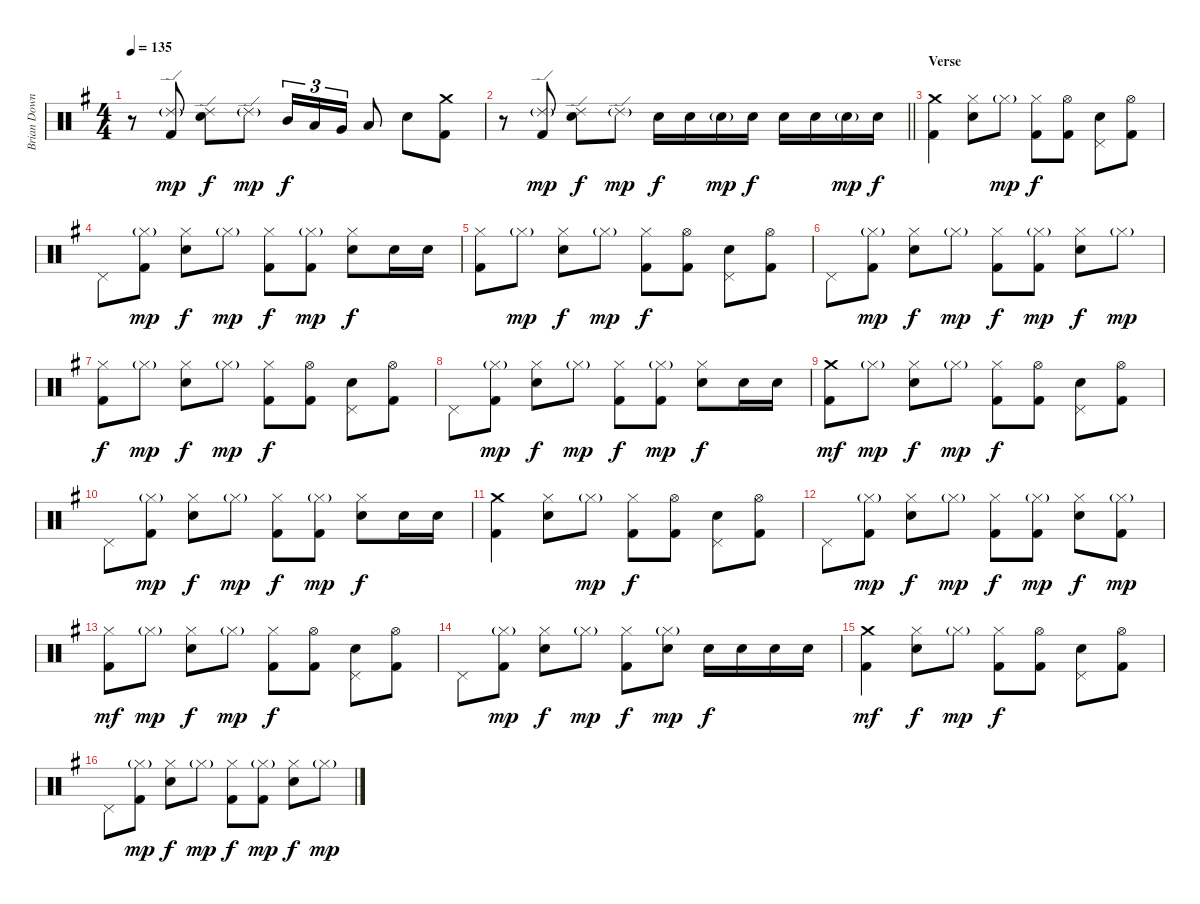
\track ("Brian Downey" "Brian Down") {instrument percussion}
\staff {score}
\articulation defaults
\ts (4 4)
\tempo 135
\clef neutral
\ks eminor
r.8{dy f} ("Ride (edge) 2"{g} "Kick (hit) 2").8{dy mp} ("Ride (edge) 2" "Electric Snare (hit)").8{dy f} "Ride (edge) 2"{g}.8{dy mp} "Mid Tom (hit)".16{tu (3 2) dy f} "Low Tom (hit)".16{tu (3 2)} "Very Low Tom (hit)".16{tu (3 2)} "Low Floor Tom (hit)".8 "Electric Snare (hit)".8 ("Crash medium (hit)" "Kick (hit) 2").8 |
\barLineRight lightlight
r.8 ("Ride (edge) 2"{g} "Kick (hit) 2").8{dy mp} ("Ride (edge) 2" "Electric Snare (hit)").8{dy f} "Ride (edge) 2"{g}.8{dy mp} "Electric Snare (hit)".16{dy f} "Electric Snare (hit)".16 "Electric Snare (hit)"{g}.16{dy mp} "Electric Snare (hit)".16{dy f} "Electric Snare (hit)".16 "Electric Snare (hit)".16 "Electric Snare (hit)"{g}.16{dy mp} "Electric Snare (hit)".16{dy f} |
\section ("" "Verse")
("Crash medium (hit)" "Kick (hit) 2").4 ("Hi-Hat (closed)" "Electric Snare (hit)").8 "Hi-Hat (closed)"{g}.8{dy mp} ("Hi-Hat (closed)" "Kick (hit) 2").8{dy f} ("Hi-Hat (open)" "Kick (hit) 2").8 ("Pedal Hi-Hat (hit)" "Electric Snare (hit)").8 ("Hi-Hat (open)" "Kick (hit) 2").8 |
"Pedal Hi-Hat (hit)".8 ("Hi-Hat (closed)"{g} "Kick (hit) 2").8{dy mp} ("Hi-Hat (closed)" "Electric Snare (hit)").8{dy f} "Hi-Hat (closed)"{g}.8{dy mp} ("Hi-Hat (closed)" "Kick (hit) 2").8{dy f} ("Hi-Hat (closed)"{g} "Kick (hit) 2").8{dy mp} ("Hi-Hat (closed)" "Electric Snare (hit)").8{dy f} "Electric Snare (hit)".16 "Electric Snare (hit)".16 |
("Hi-Hat (closed)" "Kick (hit) 2").8 "Hi-Hat (closed)"{g}.8{dy mp} ("Hi-Hat (closed)" "Electric Snare (hit)").8{dy f} "Hi-Hat (closed)"{g}.8{dy mp} ("Hi-Hat (closed)" "Kick (hit) 2").8{dy f} ("Hi-Hat (open)" "Kick (hit) 2").8 ("Pedal Hi-Hat (hit)" "Electric Snare (hit)").8 ("Hi-Hat (open)" "Kick (hit) 2").8 |
"Pedal Hi-Hat (hit)".8 ("Hi-Hat (closed)"{g} "Kick (hit) 2").8{dy mp} ("Hi-Hat (closed)" "Electric Snare (hit)").8{dy f} "Hi-Hat (closed)"{g}.8{dy mp} ("Hi-Hat (closed)" "Kick (hit) 2").8{dy f} ("Hi-Hat (closed)"{g} "Kick (hit) 2").8{dy mp} ("Hi-Hat (closed)" "Electric Snare (hit)").8{dy f} "Hi-Hat (closed)"{g}.8{dy mp} |
("Hi-Hat (closed)" "Kick (hit) 2").8{dy f} "Hi-Hat (closed)"{g}.8{dy mp} ("Hi-Hat (closed)" "Electric Snare (hit)").8{dy f} "Hi-Hat (closed)"{g}.8{dy mp} ("Hi-Hat (closed)" "Kick (hit) 2").8{dy f} ("Hi-Hat (open)" "Kick (hit) 2").8 ("Pedal Hi-Hat (hit)" "Electric Snare (hit)").8 ("Hi-Hat (open)" "Kick (hit) 2").8 |
"Pedal Hi-Hat (hit)".8 ("Hi-Hat (closed)"{g} "Kick (hit) 2").8{dy mp} ("Hi-Hat (closed)" "Electric Snare (hit)").8{dy f} "Hi-Hat (closed)"{g}.8{dy mp} ("Hi-Hat (closed)" "Kick (hit) 2").8{dy f} ("Hi-Hat (closed)"{g} "Kick (hit) 2").8{dy mp} ("Hi-Hat (closed)" "Electric Snare (hit)").8{dy f} "Electric Snare (hit)".16 "Electric Snare (hit)".16 |
("Crash medium (hit)" "Kick (hit) 2").8{dy mf} "Hi-Hat (closed)"{g}.8{dy mp} ("Hi-Hat (closed)" "Electric Snare (hit)").8{dy f} "Hi-Hat (closed)"{g}.8{dy mp} ("Hi-Hat (closed)" "Kick (hit) 2").8{dy f} ("Hi-Hat (open)" "Kick (hit) 2").8 ("Pedal Hi-Hat (hit)" "Electric Snare (hit)").8 ("Hi-Hat (open)" "Kick (hit) 2").8 |
"Pedal Hi-Hat (hit)".8 ("Hi-Hat (closed)"{g} "Kick (hit) 2").8{dy mp} ("Hi-Hat (closed)" "Electric Snare (hit)").8{dy f} "Hi-Hat (closed)"{g}.8{dy mp} ("Hi-Hat (closed)" "Kick (hit) 2").8{dy f} ("Hi-Hat (closed)"{g} "Kick (hit) 2").8{dy mp} ("Hi-Hat (closed)" "Electric Snare (hit)").8{dy f} "Electric Snare (hit)".16 "Electric Snare (hit)".16 |
("Crash medium (hit)" "Kick (hit) 2").4 ("Hi-Hat (closed)" "Electric Snare (hit)").8 "Hi-Hat (closed)"{g}.8{dy mp} ("Hi-Hat (closed)" "Kick (hit) 2").8{dy f} ("Hi-Hat (open)" "Kick (hit) 2").8 ("Pedal Hi-Hat (hit)" "Electric Snare (hit)").8 ("Hi-Hat (open)" "Kick (hit) 2").8 |
"Pedal Hi-Hat (hit)".8 ("Hi-Hat (closed)"{g} "Kick (hit) 2").8{dy mp} ("Hi-Hat (closed)" "Electric Snare (hit)").8{dy f} "Hi-Hat (closed)"{g}.8{dy mp} ("Hi-Hat (closed)" "Kick (hit) 2").8{dy f} ("Hi-Hat (closed)"{g} "Kick (hit) 2").8{dy mp} ("Hi-Hat (closed)" "Electric Snare (hit)").8{dy f} ("Hi-Hat (closed)"{g} "Kick (hit) 2").8{dy mp} |
("Hi-Hat (closed)" "Kick (hit) 2").8{dy mf} "Hi-Hat (closed)"{g}.8{dy mp} ("Hi-Hat (closed)" "Electric Snare (hit)").8{dy f} "Hi-Hat (closed)"{g}.8{dy mp} ("Hi-Hat (closed)" "Kick (hit) 2").8{dy f} ("Hi-Hat (open)" "Kick (hit) 2").8 ("Pedal Hi-Hat (hit)" "Electric Snare (hit)").8 ("Hi-Hat (open)" "Kick (hit) 2").8 |
"Pedal Hi-Hat (hit)".8 ("Hi-Hat (closed)"{g} "Kick (hit) 2").8{dy mp} ("Hi-Hat (closed)" "Electric Snare (hit)").8{dy f} "Hi-Hat (closed)"{g}.8{dy mp} ("Hi-Hat (closed)" "Kick (hit) 2").8{dy f} ("Hi-Hat (closed)"{g} "Electric Snare (hit)").8{dy mp} "Electric Snare (hit)".16{dy f} "Electric Snare (hit)".16 "Electric Snare (hit)".16 "Electric Snare (hit)".16 |
("Crash medium (hit)" "Kick (hit) 2").4{dy mf} ("Hi-Hat (closed)" "Electric Snare (hit)").8{dy f} "Hi-Hat (closed)"{g}.8{dy mp} ("Hi-Hat (closed)" "Kick (hit) 2").8{dy f} ("Hi-Hat (open)" "Kick (hit) 2").8 ("Pedal Hi-Hat (hit)" "Electric Snare (hit)").8 ("Hi-Hat (open)" "Kick (hit) 2").8 |
"Pedal Hi-Hat (hit)".8 ("Hi-Hat (closed)"{g} "Kick (hit) 2").8{dy mp} ("Hi-Hat (closed)" "Electric Snare (hit)").8{dy f} "Hi-Hat (closed)"{g}.8{dy mp} ("Hi-Hat (closed)" "Kick (hit) 2").8{dy f} ("Hi-Hat (closed)"{g} "Kick (hit) 2").8{dy mp} ("Hi-Hat (closed)" "Electric Snare (hit)").8{dy f} "Hi-Hat (closed)"{g}.8{dy mp}
